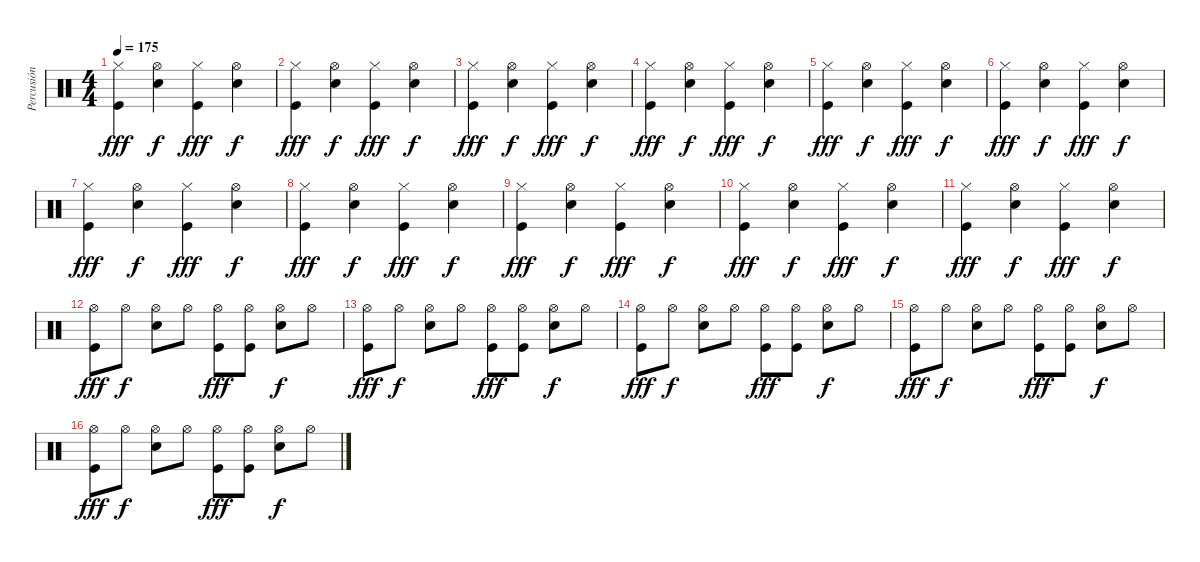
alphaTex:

\track ("Percusión" "Percusión") {instrument percussion}
\staff {score}
\articulation defaults
\ts (4 4)
\tempo 175
\clef neutral
\ks c
("Hi-Hat (closed)" "Kick (hit)").4{dy fff} ("Hi-Hat (open)" "Electric Snare (hit)").4{dy f} ("Hi-Hat (closed)" "Kick (hit)").4{dy fff} ("Hi-Hat (open)" "Electric Snare (hit)").4{dy f} |
("Hi-Hat (closed)" "Kick (hit)").4{dy fff} ("Hi-Hat (open)" "Electric Snare (hit)").4{dy f} ("Hi-Hat (closed)" "Kick (hit)").4{dy fff} ("Hi-Hat (open)" "Electric Snare (hit)").4{dy f} |
("Hi-Hat (closed)" "Kick (hit)").4{dy fff} ("Hi-Hat (open)" "Electric Snare (hit)").4{dy f} ("Hi-Hat (closed)" "Kick (hit)").4{dy fff} ("Hi-Hat (open)" "Electric Snare (hit)").4{dy f} |
("Hi-Hat (closed)" "Kick (hit)").4{dy fff} ("Hi-Hat (open)" "Electric Snare (hit)").4{dy f} ("Hi-Hat (closed)" "Kick (hit)").4{dy fff} ("Hi-Hat (open)" "Electric Snare (hit)").4{dy f} |
("Hi-Hat (closed)" "Kick (hit)").4{dy fff} ("Hi-Hat (open)" "Electric Snare (hit)").4{dy f} ("Hi-Hat (closed)" "Kick (hit)").4{dy fff} ("Hi-Hat (open)" "Electric Snare (hit)").4{dy f} |
("Hi-Hat (closed)" "Kick (hit)").4{dy fff} ("Hi-Hat (open)" "Electric Snare (hit)").4{dy f} ("Hi-Hat (closed)" "Kick (hit)").4{dy fff} ("Hi-Hat (open)" "Electric Snare (hit)").4{dy f} |
("Hi-Hat (closed)" "Kick (hit)").4{dy fff} ("Hi-Hat (open)" "Electric Snare (hit)").4{dy f} ("Hi-Hat (closed)" "Kick (hit)").4{dy fff} ("Hi-Hat (open)" "Electric Snare (hit)").4{dy f} |
("Hi-Hat (closed)" "Kick (hit)").4{dy fff} ("Hi-Hat (open)" "Electric Snare (hit)").4{dy f} ("Hi-Hat (closed)" "Kick (hit)").4{dy fff} ("Hi-Hat (open)" "Electric Snare (hit)").4{dy f} |
("Hi-Hat (closed)" "Kick (hit)").4{dy fff} ("Hi-Hat (open)" "Electric Snare (hit)").4{dy f} ("Hi-Hat (closed)" "Kick (hit)").4{dy fff} ("Hi-Hat (open)" "Electric Snare (hit)").4{dy f} |
("Hi-Hat (closed)" "Kick (hit)").4{dy fff} ("Hi-Hat (open)" "Electric Snare (hit)").4{dy f} ("Hi-Hat (closed)" "Kick (hit)").4{dy fff} ("Hi-Hat (open)" "Electric Snare (hit)").4{dy f} |
("Hi-Hat (closed)" "Kick (hit)").4{dy fff} ("Hi-Hat (open)" "Electric Snare (hit)").4{dy f} ("Hi-Hat (closed)" "Kick (hit)").4{dy fff} ("Hi-Hat (open)" "Electric Snare (hit)").4{dy f} |
("Hi-Hat (open)" "Kick (hit)").8{dy fff} "Hi-Hat (open)".8{dy f} ("Hi-Hat (open)" "Electric Snare (hit)").8 "Hi-Hat (open)".8 ("Hi-Hat (open)" "Kick (hit)").8{dy fff} ("Hi-Hat (open)" "Kick (hit)").8 ("Hi-Hat (open)" "Electric Snare (hit)").8{dy f} "Hi-Hat (open)".8 |
("Hi-Hat (open)" "Kick (hit)").8{dy fff} "Hi-Hat (open)".8{dy f} ("Hi-Hat (open)" "Electric Snare (hit)").8 "Hi-Hat (open)".8 ("Hi-Hat (open)" "Kick (hit)").8{dy fff} ("Hi-Hat (open)" "Kick (hit)").8 ("Hi-Hat (open)" "Electric Snare (hit)").8{dy f} "Hi-Hat (open)".8 |
("Hi-Hat (open)" "Kick (hit)").8{dy fff} "Hi-Hat (open)".8{dy f} ("Hi-Hat (open)" "Electric Snare (hit)").8 "Hi-Hat (open)".8 ("Hi-Hat (open)" "Kick (hit)").8{dy fff} ("Hi-Hat (open)" "Kick (hit)").8 ("Hi-Hat (open)" "Electric Snare (hit)").8{dy f} "Hi-Hat (open)".8 |
("Hi-Hat (open)" "Kick (hit)").8{dy fff} "Hi-Hat (open)".8{dy f} ("Hi-Hat (open)" "Electric Snare (hit)").8 "Hi-Hat (open)".8 ("Hi-Hat (open)" "Kick (hit)").8{dy fff} ("Hi-Hat (open)" "Kick (hit)").8 ("Hi-Hat (open)" "Electric Snare (hit)").8{dy f} "Hi-Hat (open)".8 |
("Hi-Hat (open)" "Kick (hit)").8{dy fff} "Hi-Hat (open)".8{dy f} ("Hi-Hat (open)" "Electric Snare (hit)").8 "Hi-Hat (open)".8 ("Hi-Hat (open)" "Kick (hit)").8{dy fff} ("Hi-Hat (open)" "Kick (hit)").8 ("Hi-Hat (open)" "Electric Snare (hit)").8{dy f} "Hi-Hat (open)".8
